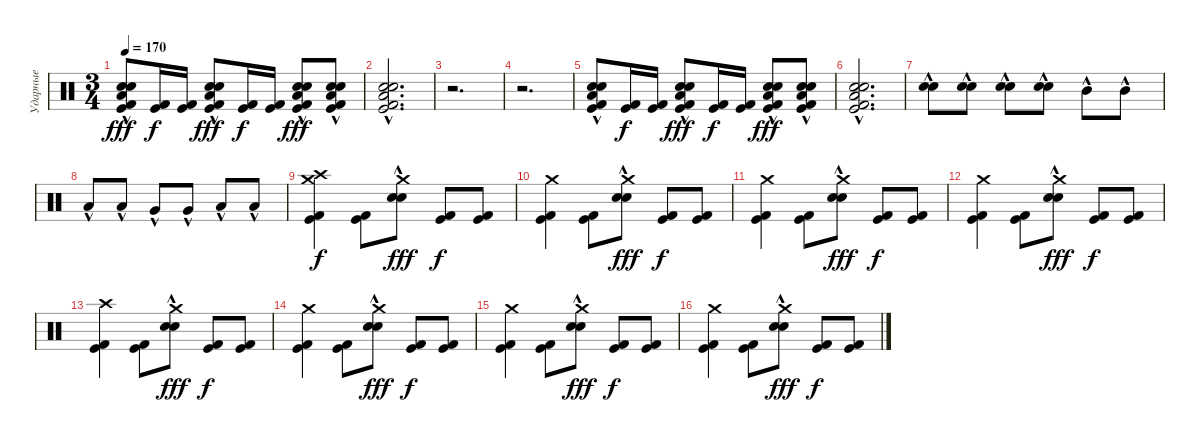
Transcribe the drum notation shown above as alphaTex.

\track ("Ударные" "Ударные") {instrument percussion}
\staff {score}
\articulation defaults
\ts (3 4)
\tempo 170
\clef neutral
\ks c
("Kick (hit)" "Kick (hit) 2" "Snare (hit) 2" "Electric Snare (hit)" "Low Floor Tom (hit)"{hac}).8{dy fff} ("Kick (hit)" "Kick (hit) 2").16{dy f} ("Kick (hit)" "Kick (hit) 2").16 ("Kick (hit)" "Kick (hit) 2" "Snare (hit) 2"{hac} "Electric Snare (hit)"{hac} "Low Floor Tom (hit)"{hac}).8{dy fff} ("Kick (hit)" "Kick (hit) 2").16{dy f} ("Kick (hit)" "Kick (hit) 2").16 ("Kick (hit)" "Kick (hit) 2" "Snare (hit) 2"{hac} "Electric Snare (hit)"{hac} "Low Floor Tom (hit)"{hac}).8{dy fff} ("Kick (hit)" "Kick (hit) 2" "Snare (hit) 2"{hac} "Electric Snare (hit)"{hac} "Low Floor Tom (hit)"{hac}).8 |
("Kick (hit)" "Kick (hit) 2" "Snare (hit) 2"{hac} "Electric Snare (hit)"{hac} "Low Floor Tom (hit)"{hac}).2{d} |
r.2{d} |
r.2{d} |
("Kick (hit)" "Kick (hit) 2" "Snare (hit) 2" "Electric Snare (hit)" "Low Floor Tom (hit)"{hac}).8 ("Kick (hit)" "Kick (hit) 2").16{dy f} ("Kick (hit)" "Kick (hit) 2").16 ("Kick (hit)" "Kick (hit) 2" "Snare (hit) 2"{hac} "Electric Snare (hit)"{hac} "Low Floor Tom (hit)"{hac}).8{dy fff} ("Kick (hit)" "Kick (hit) 2").16{dy f} ("Kick (hit)" "Kick (hit) 2").16 ("Kick (hit)" "Kick (hit) 2" "Snare (hit) 2"{hac} "Electric Snare (hit)"{hac} "Low Floor Tom (hit)"{hac}).8{dy fff} ("Kick (hit)" "Kick (hit) 2" "Snare (hit) 2"{hac} "Electric Snare (hit)"{hac} "Low Floor Tom (hit)"{hac}).8 |
("Kick (hit)" "Kick (hit) 2" "Snare (hit) 2"{hac} "Electric Snare (hit)"{hac} "Low Floor Tom (hit)"{hac}).2{d} |
("Snare (hit) 2"{hac} "Electric Snare (hit)"{hac}).8 ("Snare (hit) 2"{hac} "Electric Snare (hit)"{hac}).8 ("Snare (hit) 2"{hac} "Electric Snare (hit)"{hac}).8 ("Snare (hit) 2"{hac} "Electric Snare (hit)"{hac}).8 "Mid Tom (hit)"{hac}.8 "Mid Tom (hit)"{hac}.8 |
"Low Tom (hit)"{hac}.8 "Low Tom (hit)"{hac}.8 "Very Low Tom (hit)"{hac}.8 "Very Low Tom (hit)"{hac}.8 "Low Floor Tom (hit)"{hac}.8 "Low Floor Tom (hit)"{hac}.8 |
("Crash high (hit)" "Kick (hit)" "Kick (hit) 2" "Crash medium (hit)").4{dy f} ("Kick (hit)" "Kick (hit) 2").8 ("Crash medium (hit)" "Snare (hit) 2"{hac} "Electric Snare (hit)"{hac}).8{dy fff} ("Kick (hit)" "Kick (hit) 2").8{dy f} ("Kick (hit)" "Kick (hit) 2").8 |
("Crash medium (hit)" "Kick (hit)" "Kick (hit) 2").4 ("Kick (hit)" "Kick (hit) 2").8 ("Crash medium (hit)" "Snare (hit) 2"{hac} "Electric Snare (hit)"{hac}).8{dy fff} ("Kick (hit)" "Kick (hit) 2").8{dy f} ("Kick (hit)" "Kick (hit) 2").8 |
("Crash medium (hit)" "Kick (hit)" "Kick (hit) 2").4 ("Kick (hit)" "Kick (hit) 2").8 ("Crash medium (hit)" "Snare (hit) 2"{hac} "Electric Snare (hit)"{hac}).8{dy fff} ("Kick (hit)" "Kick (hit) 2").8{dy f} ("Kick (hit)" "Kick (hit) 2").8 |
("Crash medium (hit)" "Kick (hit)" "Kick (hit) 2").4 ("Kick (hit)" "Kick (hit) 2").8 ("Crash medium (hit)" "Snare (hit) 2"{hac} "Electric Snare (hit)"{hac}).8{dy fff} ("Kick (hit)" "Kick (hit) 2").8{dy f} ("Kick (hit)" "Kick (hit) 2").8 |
("Crash high (hit)" "Kick (hit)" "Kick (hit) 2").4 ("Kick (hit)" "Kick (hit) 2").8 ("Crash medium (hit)" "Snare (hit) 2"{hac} "Electric Snare (hit)"{hac}).8{dy fff} ("Kick (hit)" "Kick (hit) 2").8{dy f} ("Kick (hit)" "Kick (hit) 2").8 |
("Crash medium (hit)" "Kick (hit)" "Kick (hit) 2").4 ("Kick (hit)" "Kick (hit) 2").8 ("Crash medium (hit)" "Snare (hit) 2"{hac} "Electric Snare (hit)"{hac}).8{dy fff} ("Kick (hit)" "Kick (hit) 2").8{dy f} ("Kick (hit)" "Kick (hit) 2").8 |
("Crash medium (hit)" "Kick (hit)" "Kick (hit) 2").4 ("Kick (hit)" "Kick (hit) 2").8 ("Crash medium (hit)" "Snare (hit) 2"{hac} "Electric Snare (hit)"{hac}).8{dy fff} ("Kick (hit)" "Kick (hit) 2").8{dy f} ("Kick (hit)" "Kick (hit) 2").8 |
("Crash medium (hit)" "Kick (hit)" "Kick (hit) 2").4 ("Kick (hit)" "Kick (hit) 2").8 ("Crash medium (hit)" "Snare (hit) 2"{hac} "Electric Snare (hit)"{hac}).8{dy fff} ("Kick (hit)" "Kick (hit) 2").8{dy f} ("Kick (hit)" "Kick (hit) 2").8
